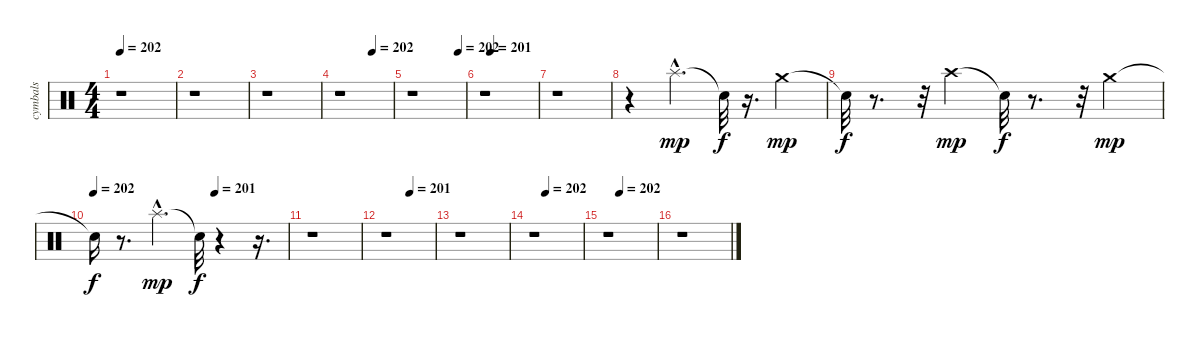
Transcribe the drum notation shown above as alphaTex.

\track ("cymbals" "cymbals") {instrument percussion}
\staff {score}
\articulation defaults
\ts (4 4)
\tempo 202
\clef neutral
\ks c
r.1{dy f} |
r.1 |
r.1 |
\tempo (202 0.625)
r.1 |
\tempo (202 0.875)
r.1 |
\tempo (201 0.125)
r.1 |
r.1 |
r.4 "Splash (hit)"{hac}.4{d dy mp} "Snare (hit)"{t}.32{dy f} r.16{d} "Crash medium (hit)".4{dy mp} |
"Snare (hit)"{t}.32{dy f} r.8{d} r.32 "Crash high (hit)".4{dy mp} "Snare (hit)"{t}.32{dy f} r.8{d} r.32 "Crash medium (hit)".4{dy mp} |
\tempo 202
\tempo (201 0.625)
"Snare (hit)"{t}.16{dy f} r.8{d} "Splash (hit)"{hac}.4{d dy mp} "Snare (hit)"{t}.32{dy f} r.4 r.16{d} |
r.1 |
\tempo (201 0.5)
r.1 |
r.1 |
\tempo (202 0.25)
r.1 |
\tempo (202 0.25)
r.1 |
r.1
